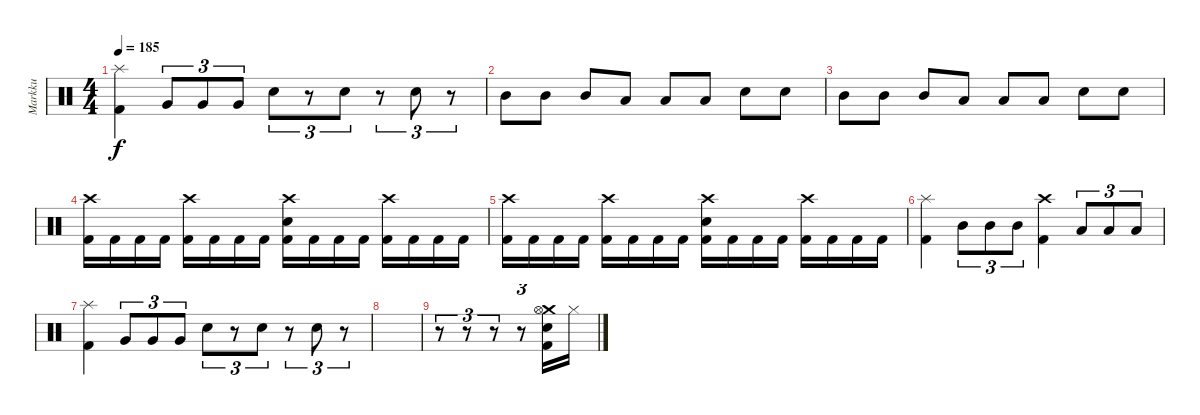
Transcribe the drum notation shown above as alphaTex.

\track ("Markku" "Markku") {instrument percussion}
\staff {score}
\articulation defaults
\ts (4 4)
\tempo 185
\clef neutral
\ks c
("Kick (hit) 2" "Splash (hit)").4{dy f} "Very Low Tom (hit)".8{tu (3 2)} "Very Low Tom (hit)".8{tu (3 2)} "Very Low Tom (hit)".8{tu (3 2)} "Snare (hit) 2".8{tu (3 2)} r.8{tu (3 2)} "Snare (hit) 2".8{tu (3 2)} r.8{tu (3 2)} "Snare (hit) 2".8{tu (3 2)} r.8{tu (3 2)} |
"Mid Tom (hit)".8 "Mid Tom (hit)".8 "Mid Tom (hit)".8 "Low Tom (hit)".8 "Low Tom (hit)".8 "Low Tom (hit)".8 "Snare (hit) 2".8 "Snare (hit) 2".8 |
"Mid Tom (hit)".8 "Mid Tom (hit)".8 "Mid Tom (hit)".8 "Low Tom (hit)".8 "Low Tom (hit)".8 "Low Tom (hit)".8 "Snare (hit) 2".8 "Snare (hit) 2".8 |
("Kick (hit) 2" "Crash high (hit)").16 "Kick (hit) 2".16 "Kick (hit) 2".16 "Kick (hit) 2".16 ("Kick (hit) 2" "Crash high (hit)").16 "Kick (hit) 2".16 "Kick (hit) 2".16 "Kick (hit) 2".16 ("Kick (hit) 2" "Snare (hit) 2" "Crash high (hit)").16 "Kick (hit) 2".16 "Kick (hit) 2".16 "Kick (hit) 2".16 ("Kick (hit) 2" "Crash high (hit)").16 "Kick (hit) 2".16 "Kick (hit) 2".16 "Kick (hit) 2".16 |
("Kick (hit) 2" "Crash high (hit)").16 "Kick (hit) 2".16 "Kick (hit) 2".16 "Kick (hit) 2".16 ("Kick (hit) 2" "Crash high (hit)").16 "Kick (hit) 2".16 "Kick (hit) 2".16 "Kick (hit) 2".16 ("Kick (hit) 2" "Snare (hit) 2" "Crash high (hit)").16 "Kick (hit) 2".16 "Kick (hit) 2".16 "Kick (hit) 2".16 ("Kick (hit) 2" "Crash high (hit)").16 "Kick (hit) 2".16 "Kick (hit) 2".16 "Kick (hit) 2".16 |
("Kick (hit) 2" "Splash (hit)").4 "Mid Tom (hit)".8{tu (3 2)} "Mid Tom (hit)".8{tu (3 2)} "Mid Tom (hit)".8{tu (3 2)} ("Kick (hit) 2" "Crash high (hit)").4 "Low Tom (hit)".8{tu (3 2)} "Low Tom (hit)".8{tu (3 2)} "Low Tom (hit)".8{tu (3 2)} |
("Kick (hit) 2" "Splash (hit)").4 "Very Low Tom (hit)".8{tu (3 2)} "Very Low Tom (hit)".8{tu (3 2)} "Very Low Tom (hit)".8{tu (3 2)} "Snare (hit) 2".8{tu (3 2)} r.8{tu (3 2)} "Snare (hit) 2".8{tu (3 2)} r.8{tu (3 2)} "Snare (hit) 2".8{tu (3 2)} r.8{tu (3 2)} |
|
r.8{tu (3 2)} r.8{tu (3 2)} r.8{tu (3 2)} r.8{tu (3 2)} ("Crash medium (hit)" "Hi-Hat (open)" "Kick (hit) 2" "Snare (hit) 2").16 "Hi-Hat (closed)".16
